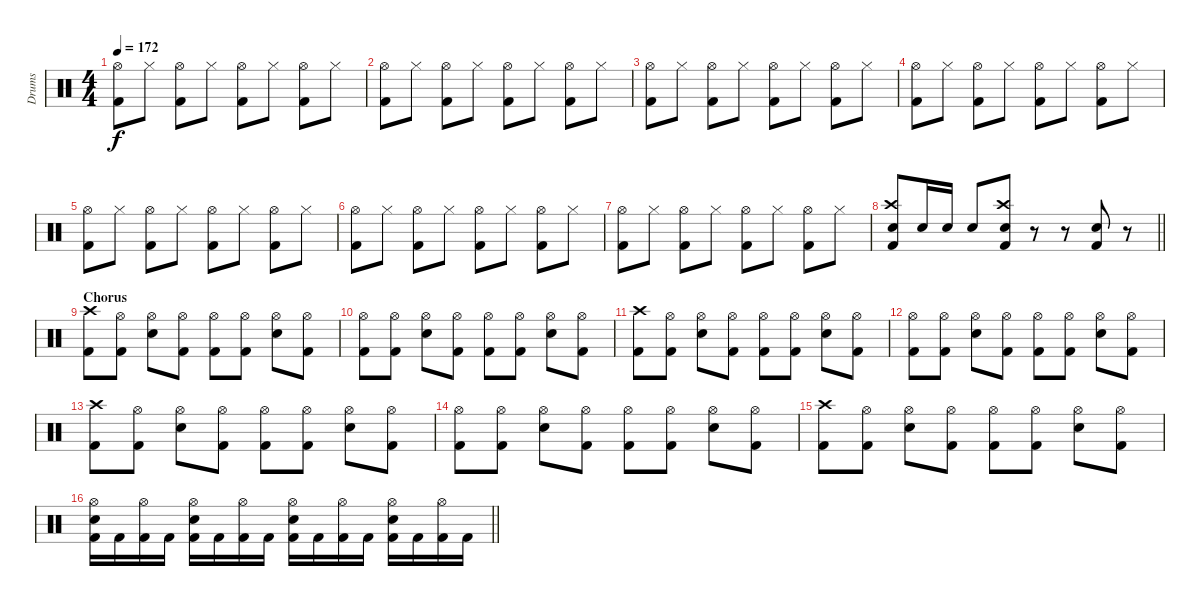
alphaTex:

\track ("Drums" "Drums") {instrument percussion}
\staff {score}
\articulation defaults
\ts (4 4)
\tempo 172
\clef neutral
\ks c
("Kick (hit) 2" "Hi-Hat (open)").8{dy f} "Hi-Hat (closed)".8 ("Hi-Hat (open)" "Kick (hit) 2").8 "Hi-Hat (closed)".8 ("Hi-Hat (open)" "Kick (hit) 2").8 "Hi-Hat (closed)".8 ("Hi-Hat (open)" "Kick (hit) 2").8 "Hi-Hat (closed)".8 |
("Kick (hit) 2" "Hi-Hat (open)").8 "Hi-Hat (closed)".8 ("Hi-Hat (open)" "Kick (hit) 2").8 "Hi-Hat (closed)".8 ("Hi-Hat (open)" "Kick (hit) 2").8 "Hi-Hat (closed)".8 ("Hi-Hat (open)" "Kick (hit) 2").8 "Hi-Hat (closed)".8 |
("Kick (hit) 2" "Hi-Hat (open)").8 "Hi-Hat (closed)".8 ("Hi-Hat (open)" "Kick (hit) 2").8 "Hi-Hat (closed)".8 ("Hi-Hat (open)" "Kick (hit) 2").8 "Hi-Hat (closed)".8 ("Hi-Hat (open)" "Kick (hit) 2").8 "Hi-Hat (closed)".8 |
("Kick (hit) 2" "Hi-Hat (open)").8 "Hi-Hat (closed)".8 ("Hi-Hat (open)" "Kick (hit) 2").8 "Hi-Hat (closed)".8 ("Hi-Hat (open)" "Kick (hit) 2").8 "Hi-Hat (closed)".8 ("Hi-Hat (open)" "Kick (hit) 2").8 "Hi-Hat (closed)".8 |
("Kick (hit) 2" "Hi-Hat (open)").8 "Hi-Hat (closed)".8 ("Hi-Hat (open)" "Kick (hit) 2").8 "Hi-Hat (closed)".8 ("Hi-Hat (open)" "Kick (hit) 2").8 "Hi-Hat (closed)".8 ("Hi-Hat (open)" "Kick (hit) 2").8 "Hi-Hat (closed)".8 |
("Kick (hit) 2" "Hi-Hat (open)").8 "Hi-Hat (closed)".8 ("Hi-Hat (open)" "Kick (hit) 2").8 "Hi-Hat (closed)".8 ("Hi-Hat (open)" "Kick (hit) 2").8 "Hi-Hat (closed)".8 ("Hi-Hat (open)" "Kick (hit) 2").8 "Hi-Hat (closed)".8 |
("Kick (hit) 2" "Hi-Hat (open)").8 "Hi-Hat (closed)".8 ("Hi-Hat (open)" "Kick (hit) 2").8 "Hi-Hat (closed)".8 ("Hi-Hat (open)" "Kick (hit) 2").8 "Hi-Hat (closed)".8 ("Hi-Hat (open)" "Kick (hit) 2").8 "Hi-Hat (closed)".8 |
\barLineRight lightlight
("Crash high (hit)" "Kick (hit) 2" "Electric Snare (hit)").8 "Electric Snare (hit)".16 "Electric Snare (hit)".16 "Electric Snare (hit)".8 ("Crash high (hit)" "Kick (hit) 2" "Electric Snare (hit)").8 r.8 r.8 ("Electric Snare (hit)" "Kick (hit) 2").8 r.8 |
\section ("" "Chorus")
("Kick (hit) 2" "Crash high (hit)").8 ("Kick (hit) 2" "Hi-Hat (open)").8 ("Electric Snare (hit)" "Hi-Hat (open)").8 ("Kick (hit) 2" "Hi-Hat (open)").8 ("Kick (hit) 2" "Hi-Hat (open)").8 ("Kick (hit) 2" "Hi-Hat (open)").8 ("Electric Snare (hit)" "Hi-Hat (open)").8 ("Kick (hit) 2" "Hi-Hat (open)").8 |
("Kick (hit) 2" "Hi-Hat (open)").8 ("Kick (hit) 2" "Hi-Hat (open)").8 ("Electric Snare (hit)" "Hi-Hat (open)").8 ("Kick (hit) 2" "Hi-Hat (open)").8 ("Kick (hit) 2" "Hi-Hat (open)").8 ("Kick (hit) 2" "Hi-Hat (open)").8 ("Electric Snare (hit)" "Hi-Hat (open)").8 ("Kick (hit) 2" "Hi-Hat (open)").8 |
("Kick (hit) 2" "Crash high (hit)").8 ("Kick (hit) 2" "Hi-Hat (open)").8 ("Electric Snare (hit)" "Hi-Hat (open)").8 ("Kick (hit) 2" "Hi-Hat (open)").8 ("Kick (hit) 2" "Hi-Hat (open)").8 ("Kick (hit) 2" "Hi-Hat (open)").8 ("Electric Snare (hit)" "Hi-Hat (open)").8 ("Kick (hit) 2" "Hi-Hat (open)").8 |
("Kick (hit) 2" "Hi-Hat (open)").8 ("Kick (hit) 2" "Hi-Hat (open)").8 ("Electric Snare (hit)" "Hi-Hat (open)").8 ("Kick (hit) 2" "Hi-Hat (open)").8 ("Kick (hit) 2" "Hi-Hat (open)").8 ("Kick (hit) 2" "Hi-Hat (open)").8 ("Electric Snare (hit)" "Hi-Hat (open)").8 ("Kick (hit) 2" "Hi-Hat (open)").8 |
("Kick (hit) 2" "Crash high (hit)").8 ("Kick (hit) 2" "Hi-Hat (open)").8 ("Electric Snare (hit)" "Hi-Hat (open)").8 ("Kick (hit) 2" "Hi-Hat (open)").8 ("Kick (hit) 2" "Hi-Hat (open)").8 ("Kick (hit) 2" "Hi-Hat (open)").8 ("Electric Snare (hit)" "Hi-Hat (open)").8 ("Kick (hit) 2" "Hi-Hat (open)").8 |
("Kick (hit) 2" "Hi-Hat (open)").8 ("Kick (hit) 2" "Hi-Hat (open)").8 ("Electric Snare (hit)" "Hi-Hat (open)").8 ("Kick (hit) 2" "Hi-Hat (open)").8 ("Kick (hit) 2" "Hi-Hat (open)").8 ("Kick (hit) 2" "Hi-Hat (open)").8 ("Electric Snare (hit)" "Hi-Hat (open)").8 ("Kick (hit) 2" "Hi-Hat (open)").8 |
("Kick (hit) 2" "Crash high (hit)").8 ("Kick (hit) 2" "Hi-Hat (open)").8 ("Electric Snare (hit)" "Hi-Hat (open)").8 ("Kick (hit) 2" "Hi-Hat (open)").8 ("Kick (hit) 2" "Hi-Hat (open)").8 ("Kick (hit) 2" "Hi-Hat (open)").8 ("Electric Snare (hit)" "Hi-Hat (open)").8 ("Kick (hit) 2" "Hi-Hat (open)").8 |
\barLineRight lightlight
("Kick (hit) 2" "Electric Snare (hit)" "Hi-Hat (open)").16 "Kick (hit) 2".16 ("Kick (hit) 2" "Hi-Hat (open)").16 "Kick (hit) 2".16 ("Kick (hit) 2" "Electric Snare (hit)" "Hi-Hat (open)").16 "Kick (hit) 2".16 ("Kick (hit) 2" "Hi-Hat (open)").16 "Kick (hit) 2".16 ("Kick (hit) 2" "Electric Snare (hit)" "Hi-Hat (open)").16 "Kick (hit) 2".16 ("Kick (hit) 2" "Hi-Hat (open)").16 "Kick (hit) 2".16 ("Kick (hit) 2" "Electric Snare (hit)" "Hi-Hat (open)").16 "Kick (hit) 2".16 ("Kick (hit) 2" "Hi-Hat (open)").16 "Kick (hit) 2".16
